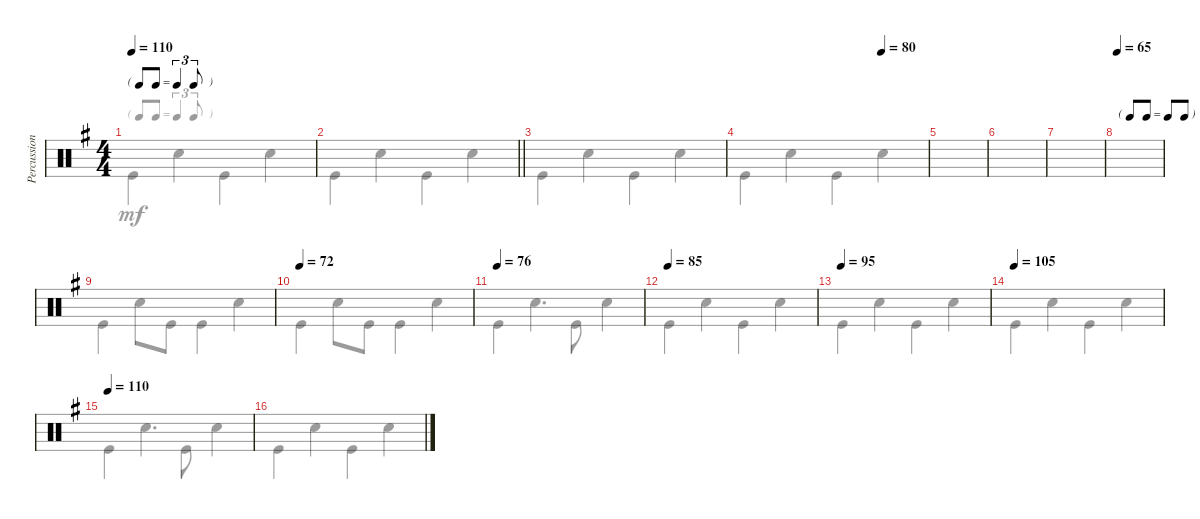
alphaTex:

\track ("Percussion" "Percussion") {instrument percussion}
\staff {score}
\articulation defaults
\voice
\ts (4 4)
\tf triplet8th
\tempo 110
\clef neutral
\ks eminor
|
\barLineRight lightlight
|
|
\tempo (80 0.75)
|
|
|
|
\tf none
\tempo 65
|
|
\tempo 72
|
\tempo 76
|
\tempo 85
|
\tempo 95
|
\tempo 105
|
\tempo 110
|
\voice
\clef neutral
\ks eminor "Kick (hit)".4{dy mf} "Snare (hit) 2".4 "Kick (hit)".4 "Snare (hit) 2".4
|
\barLineRight lightlight "Kick (hit)".4 "Snare (hit) 2".4 "Kick (hit)".4 "Snare (hit) 2".4
|
"Kick (hit)".4 "Snare (hit) 2".4 "Kick (hit)".4 "Snare (hit) 2".4 |
"Kick (hit)".4 "Snare (hit) 2".4 "Kick (hit)".4 "Snare (hit) 2".4 |
|
|
|
|
"Kick (hit)".4 "Snare (hit) 2".8 "Kick (hit)".8 "Kick (hit)".4 "Snare (hit) 2".4 |
"Kick (hit)".4 "Snare (hit) 2".8 "Kick (hit)".8 "Kick (hit)".4 "Snare (hit) 2".4 |
"Kick (hit)".4 "Snare (hit) 2".4{d} "Kick (hit)".8 "Snare (hit) 2".4 |
"Kick (hit)".4 "Snare (hit) 2".4 "Kick (hit)".4 "Snare (hit) 2".4 |
"Kick (hit)".4 "Snare (hit) 2".4 "Kick (hit)".4 "Snare (hit) 2".4 |
"Kick (hit)".4 "Snare (hit) 2".4 "Kick (hit)".4 "Snare (hit) 2".4 |
"Kick (hit)".4 "Snare (hit) 2".4{d} "Kick (hit)".8 "Snare (hit) 2".4 |
"Kick (hit)".4 "Snare (hit) 2".4 "Kick (hit)".4 "Snare (hit) 2".4
